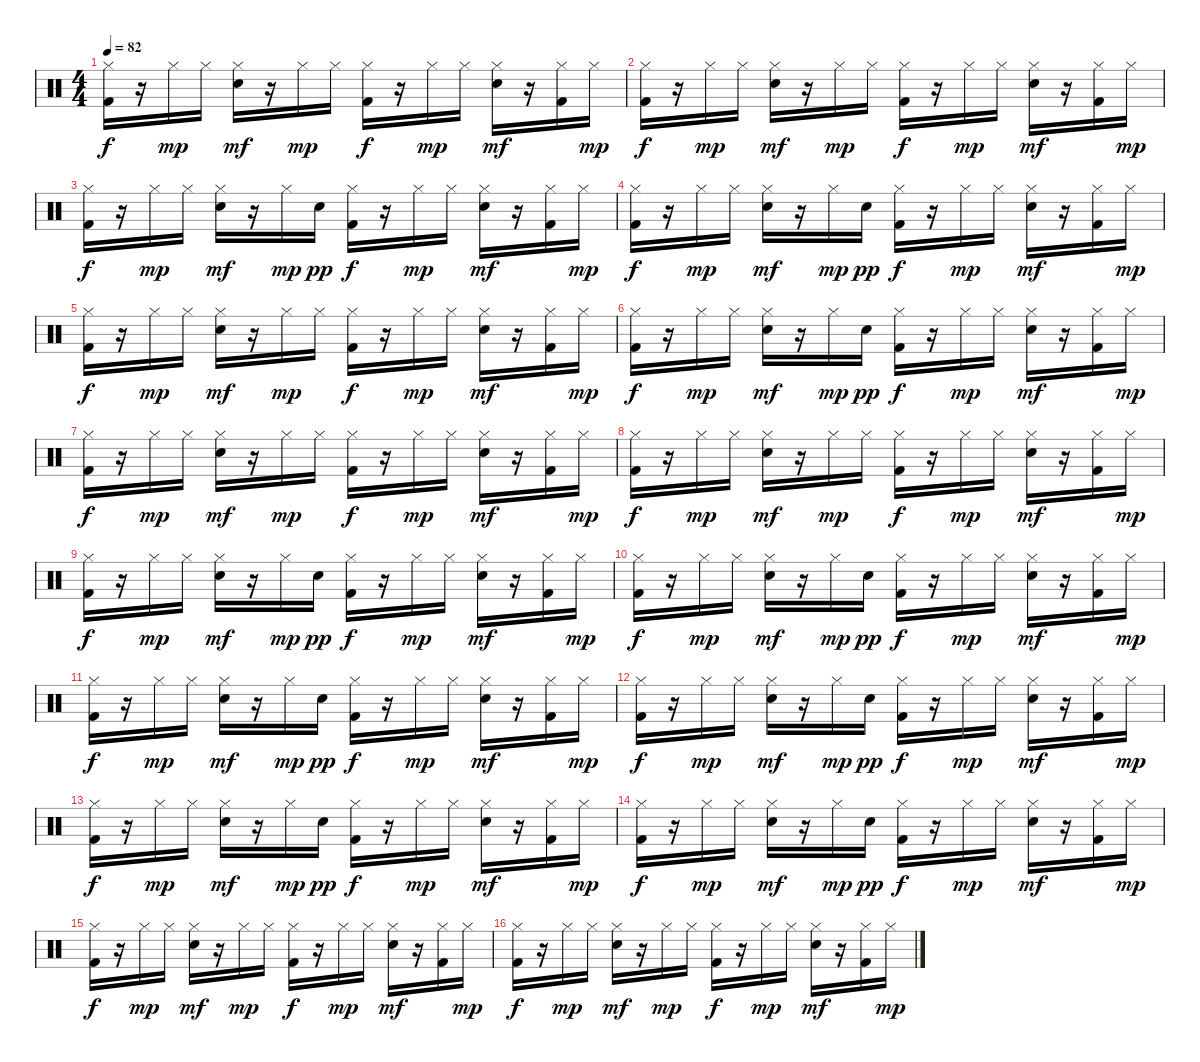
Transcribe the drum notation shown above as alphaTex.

\track "" {instrument percussion}
\staff {score}
\articulation defaults
\ts (4 4)
\tempo 82
\clef neutral
\ks c
("Hi-Hat (closed)" "Kick (hit) 2").16{dy f} r.16 "Hi-Hat (closed)".16{dy mp} "Hi-Hat (closed)".16 ("Hi-Hat (closed)" "Snare (hit) 2").16{dy mf} r.16 "Hi-Hat (closed)".16{dy mp} "Hi-Hat (closed)".16 ("Hi-Hat (closed)" "Kick (hit) 2").16{dy f} r.16 "Hi-Hat (closed)".16{dy mp} "Hi-Hat (closed)".16 ("Hi-Hat (closed)" "Snare (hit) 2").16{dy mf} r.16 ("Hi-Hat (closed)" "Kick (hit) 2").16 "Hi-Hat (closed)".16{dy mp} |
("Hi-Hat (closed)" "Kick (hit) 2").16{dy f} r.16 "Hi-Hat (closed)".16{dy mp} "Hi-Hat (closed)".16 ("Hi-Hat (closed)" "Snare (hit) 2").16{dy mf} r.16 "Hi-Hat (closed)".16{dy mp} "Hi-Hat (closed)".16 ("Hi-Hat (closed)" "Kick (hit) 2").16{dy f} r.16 "Hi-Hat (closed)".16{dy mp} "Hi-Hat (closed)".16 ("Hi-Hat (closed)" "Snare (hit) 2").16{dy mf} r.16 ("Hi-Hat (closed)" "Kick (hit) 2").16 "Hi-Hat (closed)".16{dy mp} |
("Hi-Hat (closed)" "Kick (hit) 2").16{dy f} r.16 "Hi-Hat (closed)".16{dy mp} "Hi-Hat (closed)".16 ("Hi-Hat (closed)" "Snare (hit) 2").16{dy mf} r.16 "Hi-Hat (closed)".16{dy mp} "Snare (hit) 2".16{dy pp} ("Hi-Hat (closed)" "Kick (hit) 2").16{dy f} r.16 "Hi-Hat (closed)".16{dy mp} "Hi-Hat (closed)".16 ("Hi-Hat (closed)" "Snare (hit) 2").16{dy mf} r.16 ("Hi-Hat (closed)" "Kick (hit) 2").16 "Hi-Hat (closed)".16{dy mp} |
("Hi-Hat (closed)" "Kick (hit) 2").16{dy f} r.16 "Hi-Hat (closed)".16{dy mp} "Hi-Hat (closed)".16 ("Hi-Hat (closed)" "Snare (hit) 2").16{dy mf} r.16 "Hi-Hat (closed)".16{dy mp} "Snare (hit) 2".16{dy pp} ("Hi-Hat (closed)" "Kick (hit) 2").16{dy f} r.16 "Hi-Hat (closed)".16{dy mp} "Hi-Hat (closed)".16 ("Hi-Hat (closed)" "Snare (hit) 2").16{dy mf} r.16 ("Hi-Hat (closed)" "Kick (hit) 2").16 "Hi-Hat (closed)".16{dy mp} |
("Hi-Hat (closed)" "Kick (hit) 2").16{dy f} r.16 "Hi-Hat (closed)".16{dy mp} "Hi-Hat (closed)".16 ("Hi-Hat (closed)" "Snare (hit) 2").16{dy mf} r.16 "Hi-Hat (closed)".16{dy mp} "Hi-Hat (closed)".16 ("Hi-Hat (closed)" "Kick (hit) 2").16{dy f} r.16 "Hi-Hat (closed)".16{dy mp} "Hi-Hat (closed)".16 ("Hi-Hat (closed)" "Snare (hit) 2").16{dy mf} r.16 ("Hi-Hat (closed)" "Kick (hit) 2").16 "Hi-Hat (closed)".16{dy mp} |
("Hi-Hat (closed)" "Kick (hit) 2").16{dy f} r.16 "Hi-Hat (closed)".16{dy mp} "Hi-Hat (closed)".16 ("Hi-Hat (closed)" "Snare (hit) 2").16{dy mf} r.16 "Hi-Hat (closed)".16{dy mp} "Snare (hit) 2".16{dy pp} ("Hi-Hat (closed)" "Kick (hit) 2").16{dy f} r.16 "Hi-Hat (closed)".16{dy mp} "Hi-Hat (closed)".16 ("Hi-Hat (closed)" "Snare (hit) 2").16{dy mf} r.16 ("Hi-Hat (closed)" "Kick (hit) 2").16 "Hi-Hat (closed)".16{dy mp} |
("Hi-Hat (closed)" "Kick (hit) 2").16{dy f} r.16 "Hi-Hat (closed)".16{dy mp} "Hi-Hat (closed)".16 ("Hi-Hat (closed)" "Snare (hit) 2").16{dy mf} r.16 "Hi-Hat (closed)".16{dy mp} "Hi-Hat (closed)".16 ("Hi-Hat (closed)" "Kick (hit) 2").16{dy f} r.16 "Hi-Hat (closed)".16{dy mp} "Hi-Hat (closed)".16 ("Hi-Hat (closed)" "Snare (hit) 2").16{dy mf} r.16 ("Hi-Hat (closed)" "Kick (hit) 2").16 "Hi-Hat (closed)".16{dy mp} |
("Hi-Hat (closed)" "Kick (hit) 2").16{dy f} r.16 "Hi-Hat (closed)".16{dy mp} "Hi-Hat (closed)".16 ("Hi-Hat (closed)" "Snare (hit) 2").16{dy mf} r.16 "Hi-Hat (closed)".16{dy mp} "Hi-Hat (closed)".16 ("Hi-Hat (closed)" "Kick (hit) 2").16{dy f} r.16 "Hi-Hat (closed)".16{dy mp} "Hi-Hat (closed)".16 ("Hi-Hat (closed)" "Snare (hit) 2").16{dy mf} r.16 ("Hi-Hat (closed)" "Kick (hit) 2").16 "Hi-Hat (closed)".16{dy mp} |
("Hi-Hat (closed)" "Kick (hit) 2").16{dy f} r.16 "Hi-Hat (closed)".16{dy mp} "Hi-Hat (closed)".16 ("Hi-Hat (closed)" "Snare (hit) 2").16{dy mf} r.16 "Hi-Hat (closed)".16{dy mp} "Snare (hit) 2".16{dy pp} ("Hi-Hat (closed)" "Kick (hit) 2").16{dy f} r.16 "Hi-Hat (closed)".16{dy mp} "Hi-Hat (closed)".16 ("Hi-Hat (closed)" "Snare (hit) 2").16{dy mf} r.16 ("Hi-Hat (closed)" "Kick (hit) 2").16 "Hi-Hat (closed)".16{dy mp} |
("Hi-Hat (closed)" "Kick (hit) 2").16{dy f} r.16 "Hi-Hat (closed)".16{dy mp} "Hi-Hat (closed)".16 ("Hi-Hat (closed)" "Snare (hit) 2").16{dy mf} r.16 "Hi-Hat (closed)".16{dy mp} "Snare (hit) 2".16{dy pp} ("Hi-Hat (closed)" "Kick (hit) 2").16{dy f} r.16 "Hi-Hat (closed)".16{dy mp} "Hi-Hat (closed)".16 ("Hi-Hat (closed)" "Snare (hit) 2").16{dy mf} r.16 ("Hi-Hat (closed)" "Kick (hit) 2").16 "Hi-Hat (closed)".16{dy mp} |
("Hi-Hat (closed)" "Kick (hit) 2").16{dy f} r.16 "Hi-Hat (closed)".16{dy mp} "Hi-Hat (closed)".16 ("Hi-Hat (closed)" "Snare (hit) 2").16{dy mf} r.16 "Hi-Hat (closed)".16{dy mp} "Snare (hit) 2".16{dy pp} ("Hi-Hat (closed)" "Kick (hit) 2").16{dy f} r.16 "Hi-Hat (closed)".16{dy mp} "Hi-Hat (closed)".16 ("Hi-Hat (closed)" "Snare (hit) 2").16{dy mf} r.16 ("Hi-Hat (closed)" "Kick (hit) 2").16 "Hi-Hat (closed)".16{dy mp} |
("Hi-Hat (closed)" "Kick (hit) 2").16{dy f} r.16 "Hi-Hat (closed)".16{dy mp} "Hi-Hat (closed)".16 ("Hi-Hat (closed)" "Snare (hit) 2").16{dy mf} r.16 "Hi-Hat (closed)".16{dy mp} "Snare (hit) 2".16{dy pp} ("Hi-Hat (closed)" "Kick (hit) 2").16{dy f} r.16 "Hi-Hat (closed)".16{dy mp} "Hi-Hat (closed)".16 ("Hi-Hat (closed)" "Snare (hit) 2").16{dy mf} r.16 ("Hi-Hat (closed)" "Kick (hit) 2").16 "Hi-Hat (closed)".16{dy mp} |
("Hi-Hat (closed)" "Kick (hit) 2").16{dy f} r.16 "Hi-Hat (closed)".16{dy mp} "Hi-Hat (closed)".16 ("Hi-Hat (closed)" "Snare (hit) 2").16{dy mf} r.16 "Hi-Hat (closed)".16{dy mp} "Snare (hit) 2".16{dy pp} ("Hi-Hat (closed)" "Kick (hit) 2").16{dy f} r.16 "Hi-Hat (closed)".16{dy mp} "Hi-Hat (closed)".16 ("Hi-Hat (closed)" "Snare (hit) 2").16{dy mf} r.16 ("Hi-Hat (closed)" "Kick (hit) 2").16 "Hi-Hat (closed)".16{dy mp} |
("Hi-Hat (closed)" "Kick (hit) 2").16{dy f} r.16 "Hi-Hat (closed)".16{dy mp} "Hi-Hat (closed)".16 ("Hi-Hat (closed)" "Snare (hit) 2").16{dy mf} r.16 "Hi-Hat (closed)".16{dy mp} "Snare (hit) 2".16{dy pp} ("Hi-Hat (closed)" "Kick (hit) 2").16{dy f} r.16 "Hi-Hat (closed)".16{dy mp} "Hi-Hat (closed)".16 ("Hi-Hat (closed)" "Snare (hit) 2").16{dy mf} r.16 ("Hi-Hat (closed)" "Kick (hit) 2").16 "Hi-Hat (closed)".16{dy mp} |
("Hi-Hat (closed)" "Kick (hit) 2").16{dy f} r.16 "Hi-Hat (closed)".16{dy mp} "Hi-Hat (closed)".16 ("Hi-Hat (closed)" "Snare (hit) 2").16{dy mf} r.16 "Hi-Hat (closed)".16{dy mp} "Hi-Hat (closed)".16 ("Hi-Hat (closed)" "Kick (hit) 2").16{dy f} r.16 "Hi-Hat (closed)".16{dy mp} "Hi-Hat (closed)".16 ("Hi-Hat (closed)" "Snare (hit) 2").16{dy mf} r.16 ("Hi-Hat (closed)" "Kick (hit) 2").16 "Hi-Hat (closed)".16{dy mp} |
("Hi-Hat (closed)" "Kick (hit) 2").16{dy f} r.16 "Hi-Hat (closed)".16{dy mp} "Hi-Hat (closed)".16 ("Hi-Hat (closed)" "Snare (hit) 2").16{dy mf} r.16 "Hi-Hat (closed)".16{dy mp} "Hi-Hat (closed)".16 ("Hi-Hat (closed)" "Kick (hit) 2").16{dy f} r.16 "Hi-Hat (closed)".16{dy mp} "Hi-Hat (closed)".16 ("Hi-Hat (closed)" "Snare (hit) 2").16{dy mf} r.16 ("Hi-Hat (closed)" "Kick (hit) 2").16 "Hi-Hat (closed)".16{dy mp}
